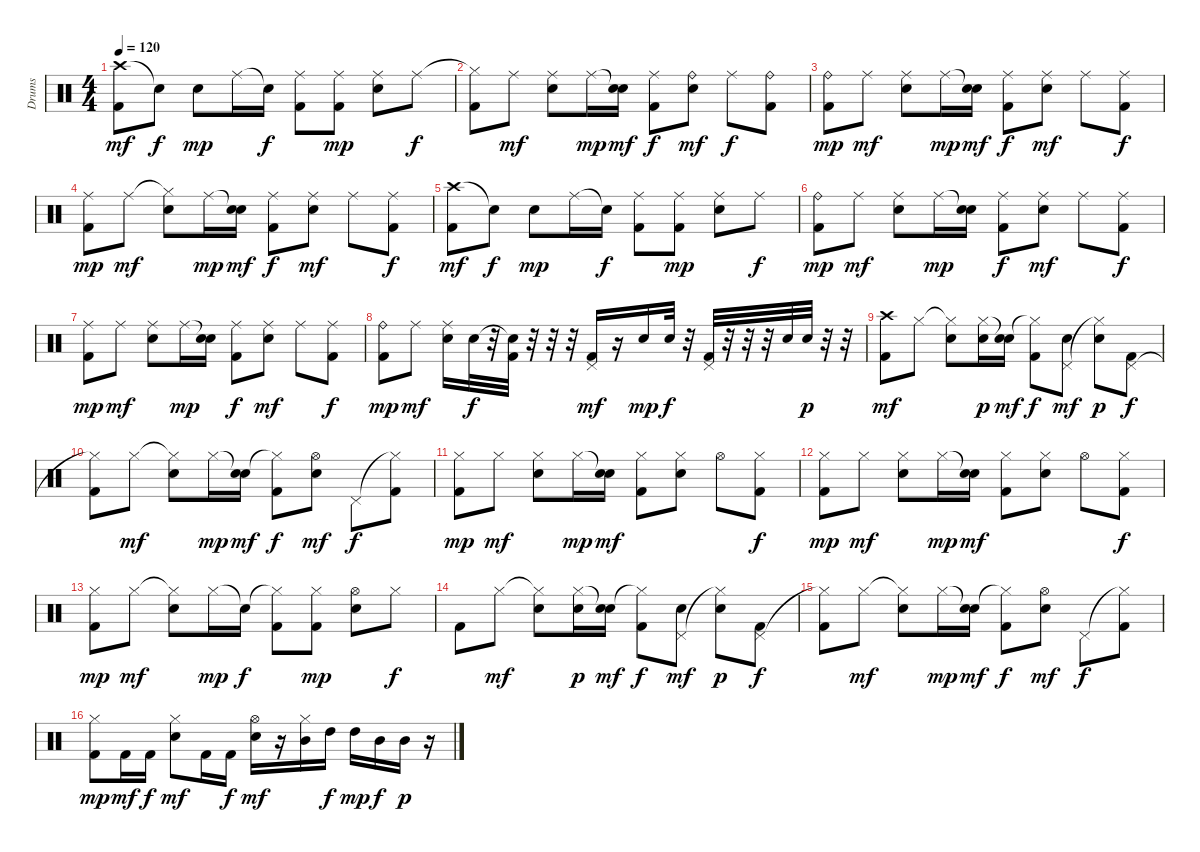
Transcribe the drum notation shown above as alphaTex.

\track ("Drums" "Drums") {instrument percussion}
\staff {score}
\articulation defaults
\ts (4 4)
\tempo 120
\clef neutral
\ks c
("Crash high (hit)" "Kick (hit) 2").8{dy mf} "Snare (hit)"{t}.8{dy f} "Snare (hit) 2".8{dy mp} "Ride (middle)".16 "Snare (hit)"{t}.16{dy f} ("Ride (middle)" "Kick (hit) 2").8 ("Ride (middle)" "Kick (hit) 2").8{dy mp} ("Ride (middle)" "Snare (hit) 2").8 "Ride (middle)".8{dy f} |
("Hi-Hat (closed)"{t} "Kick (hit) 2").8 "Ride (middle)".8{dy mf} ("Ride (middle)" "Snare (hit) 2").8 "Ride (middle)".16{dy mp} ("Snare (hit)"{t} "Snare (hit) 2").16{dy mf} ("Ride (middle)" "Kick (hit) 2").8{dy f} ("Ride (bell)" "Snare (hit) 2").8{dy mf} "Ride (middle)".8{dy f} ("Ride (bell)" "Kick (hit) 2").8 |
("Ride (bell)" "Kick (hit) 2").8{dy mp} "Ride (middle)".8{dy mf} ("Ride (middle)" "Snare (hit) 2").8 "Ride (middle)".16{dy mp} ("Snare (hit)"{t} "Snare (hit) 2").16{dy mf} ("Ride (middle)" "Kick (hit) 2").8{dy f} ("Ride (middle)" "Snare (hit) 2").8{dy mf} "Ride (middle)".8 ("Ride (middle)" "Kick (hit) 2").8{dy f} |
("Ride (middle)" "Kick (hit) 2").8{dy mp} "Ride (middle)".8{dy mf} ("Hi-Hat (closed)"{t} "Snare (hit) 2").8 "Ride (middle)".16{dy mp} ("Snare (hit)"{t} "Snare (hit) 2").16{dy mf} ("Ride (middle)" "Kick (hit) 2").8{dy f} ("Ride (middle)" "Snare (hit) 2").8{dy mf} "Ride (middle)".8 ("Ride (middle)" "Kick (hit) 2").8{dy f} |
("Crash high (hit)" "Kick (hit) 2").8{dy mf} "Snare (hit)"{t}.8{dy f} "Snare (hit) 2".8{dy mp} "Ride (middle)".16 "Snare (hit)"{t}.16{dy f} ("Ride (middle)" "Kick (hit) 2").8 ("Ride (middle)" "Kick (hit) 2").8{dy mp} ("Ride (middle)" "Snare (hit) 2").8 "Ride (middle)".8{dy f} |
("Ride (bell)" "Kick (hit) 2").8{dy mp} "Ride (middle)".8{dy mf} ("Ride (middle)" "Snare (hit) 2").8 "Ride (middle)".16{dy mp} ("Snare (hit)"{t} "Snare (hit) 2").16 ("Ride (middle)" "Kick (hit) 2").8{dy f} ("Ride (middle)" "Snare (hit) 2").8{dy mf} "Ride (middle)".8 ("Ride (middle)" "Kick (hit) 2").8{dy f} |
("Ride (middle)" "Kick (hit) 2").8{dy mp} "Ride (middle)".8{dy mf} ("Ride (middle)" "Snare (hit) 2").8 "Ride (middle)".16{dy mp} ("Snare (hit)"{t} "Snare (hit) 2").16 ("Ride (middle)" "Kick (hit) 2").8{dy f} ("Ride (middle)" "Snare (hit) 2").8{dy mf} "Ride (middle)".8 ("Ride (middle)" "Kick (hit) 2").8{dy f} |
("Ride (bell)" "Kick (hit) 2").8{dy mp} "Ride (middle)".8{dy mf} ("Ride (middle)" "Snare (hit) 2").16 "Snare (hit) 2".32{dy f} r.32 ("Snare (hit)"{t} "Kick (hit) 2").32 r.32 r.32 r.32 ("Pedal Hi-Hat (hit)" "Kick (hit) 2").16{dy mf} r.16 "Snare (hit) 2".16{dy mp} "Snare (hit) 2".32{dy f} r.32 ("Pedal Hi-Hat (hit)" "Kick (hit) 2").32 r.32 r.32 r.32 "Snare (hit) 2".32 "Snare (hit) 2".32{dy p} r.32 r.32 |
("Crash high (hit)" "Kick (hit) 2").8{dy mf} "Hi-Hat (closed)".8 ("Hi-Hat (closed)"{t} "Snare (hit) 2").8 ("Hi-Hat (closed)" "Snare (hit) 2").16{dy p} ("Snare (hit)"{t} "Snare (hit) 2").16{dy mf} ("Hi-Hat (closed)"{t} "Kick (hit) 2").8{dy f} ("Pedal Hi-Hat (hit)" "Snare (hit) 2").8{dy mf} ("Hi-Hat (closed)"{t} "Snare (hit) 2").8{dy p} ("Pedal Hi-Hat (hit)" "Kick (hit) 2").8{dy f} |
("Hi-Hat (closed)"{t} "Kick (hit) 2").8 "Hi-Hat (closed)".8{dy mf} ("Hi-Hat (closed)"{t} "Snare (hit) 2").8 "Hi-Hat (closed)".16{dy mp} ("Snare (hit)"{t} "Snare (hit) 2").16{dy mf} ("Hi-Hat (closed)"{t} "Kick (hit) 2").8{dy f} ("Hi-Hat (open)" "Snare (hit) 2").8{dy mf} "Pedal Hi-Hat (hit)".8{dy f} ("Hi-Hat (closed)"{t} "Kick (hit) 2").8 |
("Hi-Hat (closed)" "Kick (hit) 2").8{dy mp} "Hi-Hat (closed)".8{dy mf} ("Hi-Hat (closed)" "Snare (hit) 2").8 "Hi-Hat (closed)".16{dy mp} ("Snare (hit)"{t} "Snare (hit) 2").16{dy mf} ("Hi-Hat (closed)" "Kick (hit) 2").8 ("Hi-Hat (closed)" "Snare (hit) 2").8 "Hi-Hat (open)".8 ("Hi-Hat (closed)" "Kick (hit) 2").8{dy f} |
("Hi-Hat (closed)" "Kick (hit) 2").8{dy mp} "Hi-Hat (closed)".8{dy mf} ("Hi-Hat (closed)" "Snare (hit) 2").8 "Hi-Hat (closed)".16{dy mp} ("Snare (hit)"{t} "Snare (hit) 2").16{dy mf} ("Hi-Hat (closed)" "Kick (hit) 2").8 ("Hi-Hat (closed)" "Snare (hit) 2").8 "Hi-Hat (open)".8 ("Hi-Hat (closed)" "Kick (hit) 2").8{dy f} |
("Hi-Hat (closed)" "Kick (hit) 2").8{dy mp} "Hi-Hat (closed)".8{dy mf} ("Hi-Hat (closed)"{t} "Snare (hit) 2").8 "Hi-Hat (closed)".16{dy mp} "Snare (hit)"{t}.16{dy f} ("Hi-Hat (closed)"{t} "Kick (hit) 2").8 ("Hi-Hat (closed)" "Kick (hit) 2").8{dy mp} ("Hi-Hat (open)" "Snare (hit) 2").8 "Hi-Hat (closed)".8{dy f} |
"Kick (hit) 2".8 "Hi-Hat (closed)".8{dy mf} ("Hi-Hat (closed)"{t} "Snare (hit) 2").8 ("Hi-Hat (closed)" "Snare (hit) 2").16{dy p} ("Snare (hit)"{t} "Snare (hit) 2").16{dy mf} ("Hi-Hat (closed)"{t} "Kick (hit) 2").8{dy f} ("Pedal Hi-Hat (hit)" "Snare (hit) 2").8{dy mf} ("Hi-Hat (closed)"{t} "Snare (hit) 2").8{dy p} ("Pedal Hi-Hat (hit)" "Kick (hit) 2").8{dy f} |
("Hi-Hat (closed)"{t} "Kick (hit) 2").8 "Hi-Hat (closed)".8{dy mf} ("Hi-Hat (closed)"{t} "Snare (hit) 2").8 "Hi-Hat (closed)".16{dy mp} ("Snare (hit)"{t} "Snare (hit) 2").16{dy mf} ("Hi-Hat (closed)"{t} "Kick (hit) 2").8{dy f} ("Hi-Hat (open)" "Snare (hit) 2").8{dy mf} "Pedal Hi-Hat (hit)".8{dy f} ("Hi-Hat (closed)"{t} "Kick (hit) 2").8 |
("Hi-Hat (closed)" "Kick (hit) 2").8{dy mp} "Kick (hit) 2".16{dy mf} "Kick (hit) 2".16{dy f} ("Hi-Hat (closed)" "Snare (hit) 2").8{dy mf} "Kick (hit) 2".16 "Kick (hit) 2".16{dy f} ("Hi-Hat (open)" "Snare (hit) 2").16{dy mf} r.16 ("Hi-Hat (closed)" "Mid Tom (hit)").16 "High Tom (hit)".16{dy f} "High Tom (hit)".16{dy mp} "Mid Tom (hit)".16{dy f} "Mid Tom (hit)".16{dy p} r.16
